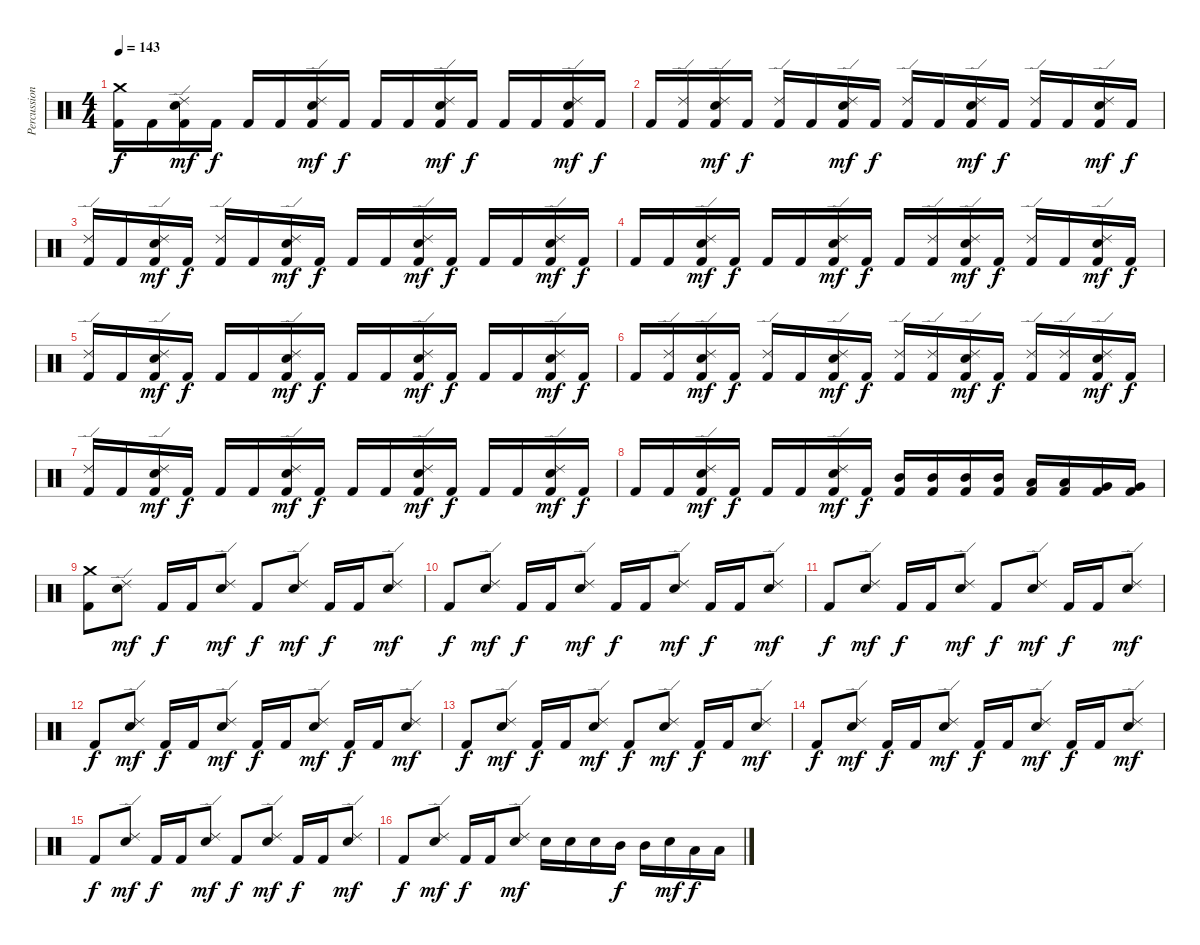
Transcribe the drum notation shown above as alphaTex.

\track ("Percussion" "Percussion") {instrument percussion}
\staff {score}
\articulation defaults
\ts (4 4)
\tempo 143
\clef neutral
\ks c
("Crash medium (hit)" "Kick (hit) 2").16{dy f} "Kick (hit) 2".16 ("Ride (edge) 2" "Electric Snare (hit)" "Kick (hit) 2").16{dy mf} "Kick (hit) 2".16{dy f} "Kick (hit) 2".16 "Kick (hit) 2".16 ("Ride (edge) 2" "Electric Snare (hit)" "Kick (hit) 2").16{dy mf} "Kick (hit) 2".16{dy f} "Kick (hit) 2".16 "Kick (hit) 2".16 ("Ride (edge) 2" "Electric Snare (hit)" "Kick (hit) 2").16{dy mf} "Kick (hit) 2".16{dy f} "Kick (hit) 2".16 "Kick (hit) 2".16 ("Ride (edge) 2" "Electric Snare (hit)" "Kick (hit) 2").16{dy mf} "Kick (hit) 2".16{dy f} |
"Kick (hit) 2".16 ("Ride (edge) 2" "Kick (hit) 2").16 ("Ride (edge) 2" "Electric Snare (hit)" "Kick (hit) 2").16{dy mf} "Kick (hit) 2".16{dy f} ("Ride (edge) 2" "Kick (hit) 2").16 "Kick (hit) 2".16 ("Ride (edge) 2" "Electric Snare (hit)" "Kick (hit) 2").16{dy mf} "Kick (hit) 2".16{dy f} ("Ride (edge) 2" "Kick (hit) 2").16 "Kick (hit) 2".16 ("Ride (edge) 2" "Electric Snare (hit)" "Kick (hit) 2").16{dy mf} "Kick (hit) 2".16{dy f} ("Ride (edge) 2" "Kick (hit) 2").16 "Kick (hit) 2".16 ("Ride (edge) 2" "Electric Snare (hit)" "Kick (hit) 2").16{dy mf} "Kick (hit) 2".16{dy f} |
("Ride (edge) 2" "Kick (hit) 2").16 "Kick (hit) 2".16 ("Ride (edge) 2" "Electric Snare (hit)" "Kick (hit) 2").16{dy mf} "Kick (hit) 2".16{dy f} ("Ride (edge) 2" "Kick (hit) 2").16 "Kick (hit) 2".16 ("Ride (edge) 2" "Electric Snare (hit)" "Kick (hit) 2").16{dy mf} "Kick (hit) 2".16{dy f} "Kick (hit) 2".16 "Kick (hit) 2".16 ("Ride (edge) 2" "Electric Snare (hit)" "Kick (hit) 2").16{dy mf} "Kick (hit) 2".16{dy f} "Kick (hit) 2".16 "Kick (hit) 2".16 ("Ride (edge) 2" "Electric Snare (hit)" "Kick (hit) 2").16{dy mf} "Kick (hit) 2".16{dy f} |
"Kick (hit) 2".16 "Kick (hit) 2".16 ("Ride (edge) 2" "Electric Snare (hit)" "Kick (hit) 2").16{dy mf} "Kick (hit) 2".16{dy f} "Kick (hit) 2".16 "Kick (hit) 2".16 ("Ride (edge) 2" "Electric Snare (hit)" "Kick (hit) 2").16{dy mf} "Kick (hit) 2".16{dy f} "Kick (hit) 2".16 ("Ride (edge) 2" "Kick (hit) 2").16 ("Ride (edge) 2" "Electric Snare (hit)" "Kick (hit) 2").16{dy mf} "Kick (hit) 2".16{dy f} ("Ride (edge) 2" "Kick (hit) 2").16 "Kick (hit) 2".16 ("Ride (edge) 2" "Electric Snare (hit)" "Kick (hit) 2").16{dy mf} "Kick (hit) 2".16{dy f} |
("Ride (edge) 2" "Kick (hit) 2").16 "Kick (hit) 2".16 ("Ride (edge) 2" "Electric Snare (hit)" "Kick (hit) 2").16{dy mf} "Kick (hit) 2".16{dy f} "Kick (hit) 2".16 "Kick (hit) 2".16 ("Ride (edge) 2" "Electric Snare (hit)" "Kick (hit) 2").16{dy mf} "Kick (hit) 2".16{dy f} "Kick (hit) 2".16 "Kick (hit) 2".16 ("Ride (edge) 2" "Electric Snare (hit)" "Kick (hit) 2").16{dy mf} "Kick (hit) 2".16{dy f} "Kick (hit) 2".16 "Kick (hit) 2".16 ("Ride (edge) 2" "Electric Snare (hit)" "Kick (hit) 2").16{dy mf} "Kick (hit) 2".16{dy f} |
"Kick (hit) 2".16 ("Ride (edge) 2" "Kick (hit) 2").16 ("Ride (edge) 2" "Electric Snare (hit)" "Kick (hit) 2").16{dy mf} "Kick (hit) 2".16{dy f} ("Ride (edge) 2" "Kick (hit) 2").16 "Kick (hit) 2".16 ("Ride (edge) 2" "Electric Snare (hit)" "Kick (hit) 2").16{dy mf} "Kick (hit) 2".16{dy f} ("Ride (edge) 2" "Kick (hit) 2").16 ("Ride (edge) 2" "Kick (hit) 2").16 ("Ride (edge) 2" "Electric Snare (hit)" "Kick (hit) 2").16{dy mf} "Kick (hit) 2".16{dy f} ("Ride (edge) 2" "Kick (hit) 2").16 ("Ride (edge) 2" "Kick (hit) 2").16 ("Ride (edge) 2" "Electric Snare (hit)" "Kick (hit) 2").16{dy mf} "Kick (hit) 2".16{dy f} |
("Ride (edge) 2" "Kick (hit) 2").16 "Kick (hit) 2".16 ("Ride (edge) 2" "Electric Snare (hit)" "Kick (hit) 2").16{dy mf} "Kick (hit) 2".16{dy f} "Kick (hit) 2".16 "Kick (hit) 2".16 ("Ride (edge) 2" "Electric Snare (hit)" "Kick (hit) 2").16{dy mf} "Kick (hit) 2".16{dy f} "Kick (hit) 2".16 "Kick (hit) 2".16 ("Ride (edge) 2" "Electric Snare (hit)" "Kick (hit) 2").16{dy mf} "Kick (hit) 2".16{dy f} "Kick (hit) 2".16 "Kick (hit) 2".16 ("Ride (edge) 2" "Electric Snare (hit)" "Kick (hit) 2").16{dy mf} "Kick (hit) 2".16{dy f} |
"Kick (hit) 2".16 "Kick (hit) 2".16 ("Ride (edge) 2" "Electric Snare (hit)" "Kick (hit) 2").16{dy mf} "Kick (hit) 2".16{dy f} "Kick (hit) 2".16 "Kick (hit) 2".16 ("Ride (edge) 2" "Electric Snare (hit)" "Kick (hit) 2").16{dy mf} "Kick (hit) 2".16{dy f} ("Mid Tom (hit)" "Kick (hit) 2").16 ("Mid Tom (hit)" "Kick (hit) 2").16 ("Mid Tom (hit)" "Kick (hit) 2").16 ("Mid Tom (hit)" "Kick (hit) 2").16 ("Low Tom (hit)" "Kick (hit) 2").16 ("Low Tom (hit)" "Kick (hit) 2").16 ("Very Low Tom (hit)" "Kick (hit) 2").16 ("Very Low Tom (hit)" "Kick (hit) 2").16 |
("Crash medium (hit)" "Kick (hit) 2").8 ("Ride (edge) 2" "Electric Snare (hit)").8{dy mf} "Kick (hit) 2".16{dy f} "Kick (hit) 2".16 ("Ride (edge) 2" "Electric Snare (hit)").8{dy mf} "Kick (hit) 2".8{dy f} ("Ride (edge) 2" "Electric Snare (hit)").8{dy mf} "Kick (hit) 2".16{dy f} "Kick (hit) 2".16 ("Ride (edge) 2" "Electric Snare (hit)").8{dy mf} |
"Kick (hit) 2".8{dy f} ("Ride (edge) 2" "Electric Snare (hit)").8{dy mf} "Kick (hit) 2".16{dy f} "Kick (hit) 2".16 ("Ride (edge) 2" "Electric Snare (hit)").8{dy mf} "Kick (hit) 2".16{dy f} "Kick (hit) 2".16 ("Ride (edge) 2" "Electric Snare (hit)").8{dy mf} "Kick (hit) 2".16{dy f} "Kick (hit) 2".16 ("Ride (edge) 2" "Electric Snare (hit)").8{dy mf} |
"Kick (hit) 2".8{dy f} ("Ride (edge) 2" "Electric Snare (hit)").8{dy mf} "Kick (hit) 2".16{dy f} "Kick (hit) 2".16 ("Ride (edge) 2" "Electric Snare (hit)").8{dy mf} "Kick (hit) 2".8{dy f} ("Ride (edge) 2" "Electric Snare (hit)").8{dy mf} "Kick (hit) 2".16{dy f} "Kick (hit) 2".16 ("Ride (edge) 2" "Electric Snare (hit)").8{dy mf} |
"Kick (hit) 2".8{dy f} ("Ride (edge) 2" "Electric Snare (hit)").8{dy mf} "Kick (hit) 2".16{dy f} "Kick (hit) 2".16 ("Ride (edge) 2" "Electric Snare (hit)").8{dy mf} "Kick (hit) 2".16{dy f} "Kick (hit) 2".16 ("Ride (edge) 2" "Electric Snare (hit)").8{dy mf} "Kick (hit) 2".16{dy f} "Kick (hit) 2".16 ("Ride (edge) 2" "Electric Snare (hit)").8{dy mf} |
"Kick (hit) 2".8{dy f} ("Ride (edge) 2" "Electric Snare (hit)").8{dy mf} "Kick (hit) 2".16{dy f} "Kick (hit) 2".16 ("Ride (edge) 2" "Electric Snare (hit)").8{dy mf} "Kick (hit) 2".8{dy f} ("Ride (edge) 2" "Electric Snare (hit)").8{dy mf} "Kick (hit) 2".16{dy f} "Kick (hit) 2".16 ("Ride (edge) 2" "Electric Snare (hit)").8{dy mf} |
"Kick (hit) 2".8{dy f} ("Ride (edge) 2" "Electric Snare (hit)").8{dy mf} "Kick (hit) 2".16{dy f} "Kick (hit) 2".16 ("Ride (edge) 2" "Electric Snare (hit)").8{dy mf} "Kick (hit) 2".16{dy f} "Kick (hit) 2".16 ("Ride (edge) 2" "Electric Snare (hit)").8{dy mf} "Kick (hit) 2".16{dy f} "Kick (hit) 2".16 ("Ride (edge) 2" "Electric Snare (hit)").8{dy mf} |
"Kick (hit) 2".8{dy f} ("Ride (edge) 2" "Electric Snare (hit)").8{dy mf} "Kick (hit) 2".16{dy f} "Kick (hit) 2".16 ("Ride (edge) 2" "Electric Snare (hit)").8{dy mf} "Kick (hit) 2".8{dy f} ("Ride (edge) 2" "Electric Snare (hit)").8{dy mf} "Kick (hit) 2".16{dy f} "Kick (hit) 2".16 ("Ride (edge) 2" "Electric Snare (hit)").8{dy mf} |
"Kick (hit) 2".8{dy f} ("Ride (edge) 2" "Electric Snare (hit)").8{dy mf} "Kick (hit) 2".16{dy f} "Kick (hit) 2".16 ("Ride (edge) 2" "Electric Snare (hit)").8{dy mf} "Electric Snare (hit)".16 "Electric Snare (hit)".16 "Electric Snare (hit)".16 "Mid Tom (hit)".16{dy f} "Mid Tom (hit)".16 "Electric Snare (hit)".16{dy mf} "Low Tom (hit)".16{dy f} "Low Tom (hit)".16
